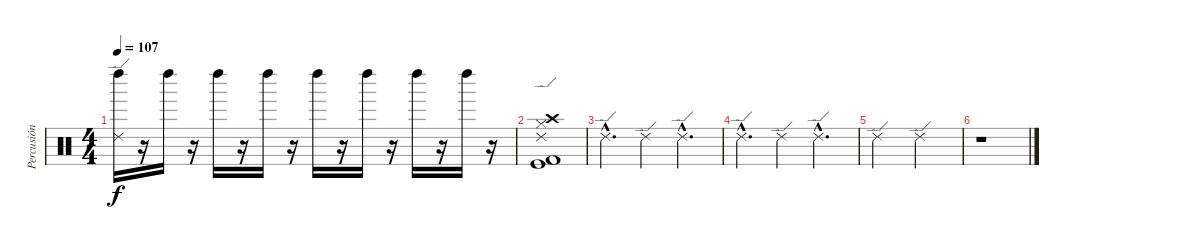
\track ("Percusión" "Percusión") {instrument percussion}
\staff {score}
\articulation defaults
\ts (4 4)
\tempo 107
\clef neutral
\ks c
("Ride (edge) 2" "Left Maraca (hit)").16{dy f} r.16 "Left Maraca (hit)".16 r.16 "Left Maraca (hit)".16 r.16 "Left Maraca (hit)".16 r.16 "Left Maraca (hit)".16 r.16 "Left Maraca (hit)".16 r.16 "Left Maraca (hit)".16 r.16 "Left Maraca (hit)".16 r.16 |
("Crash high (hit)" "Ride (edge) 2" "Hi-Hat (closed)" "Kick (hit)" "Kick (hit) 2").1 |
"Ride (edge) 2"{hac}.4{d} "Ride (edge) 2".4 "Ride (edge) 2"{hac}.4{d} |
"Ride (edge) 2"{hac}.4{d} "Ride (edge) 2".4 "Ride (edge) 2"{hac}.4{d} |
"Ride (edge) 2".2 "Ride (edge) 2".2 |
r.1
